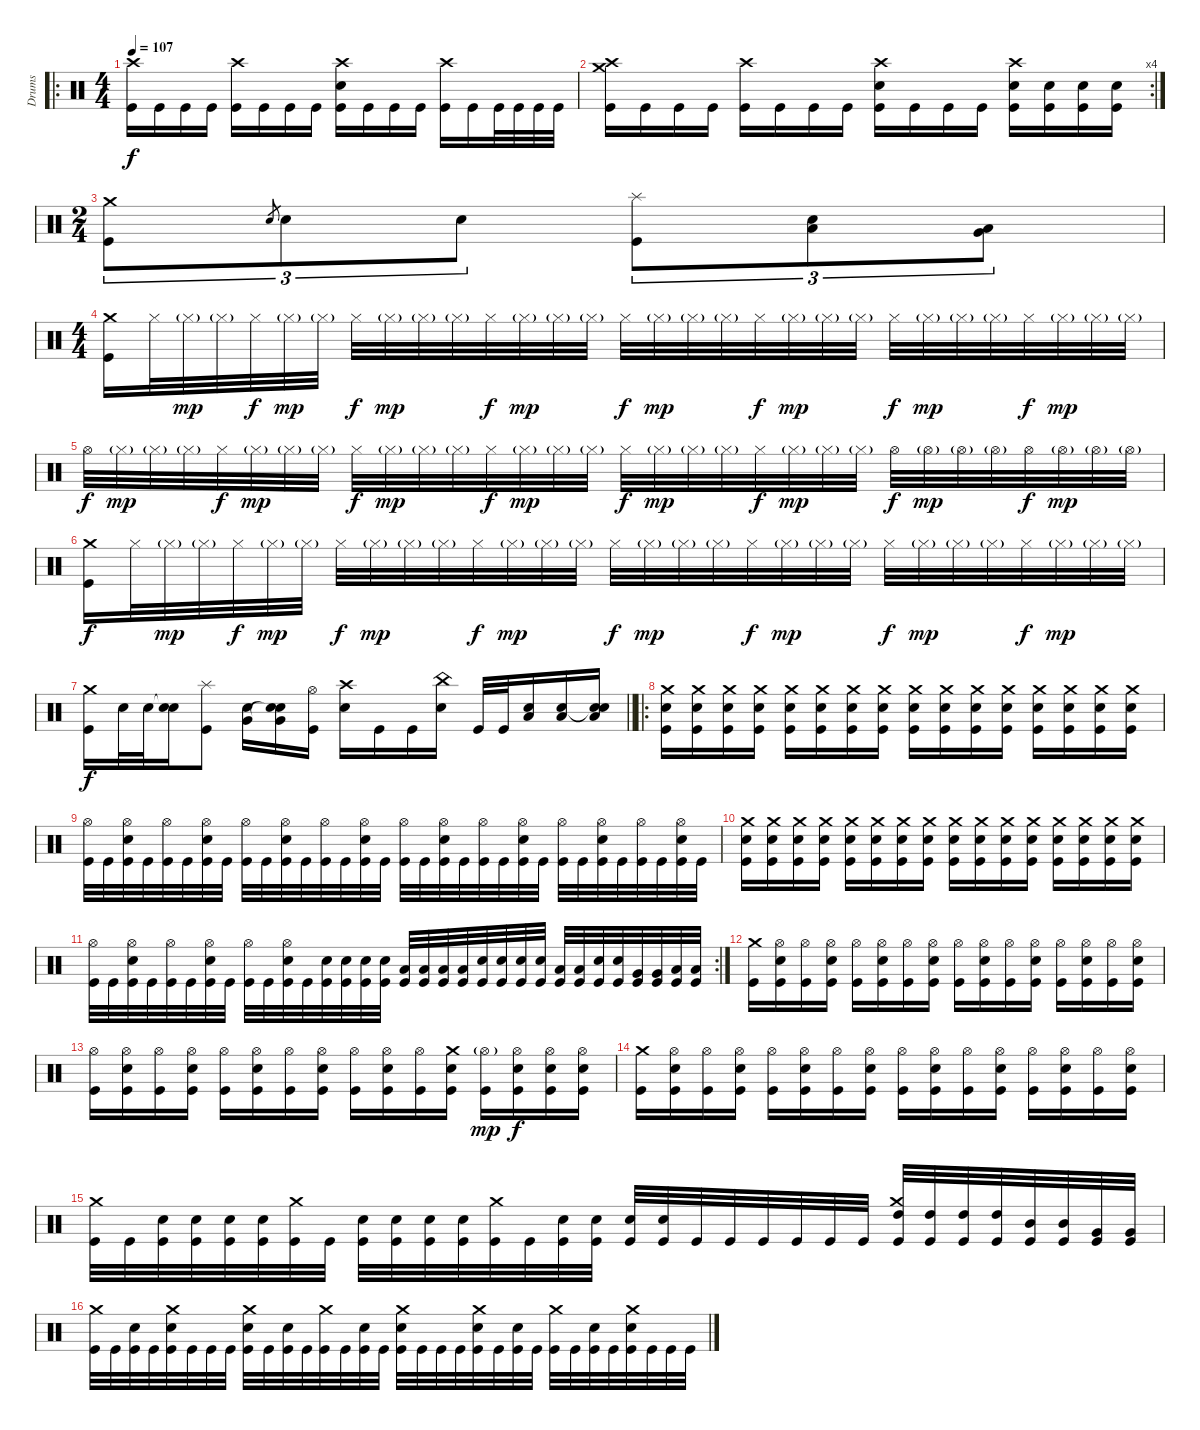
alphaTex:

\track ("Drums" "Drums") {instrument percussion}
\staff {score}
\articulation defaults
\ro
\ts (4 4)
\tempo 107
\clef neutral
\ks c
("Crash high (hit)" "Kick (hit)").16{dy f} "Kick (hit)".16 "Kick (hit)".16 "Kick (hit)".16 ("Crash high (hit)" "Kick (hit)").16 "Kick (hit)".16 "Kick (hit)".16 "Kick (hit)".16 ("Crash high (hit)" "Electric Snare (hit)" "Kick (hit)").16 "Kick (hit)".16 "Kick (hit)".16 "Kick (hit)".16 ("Crash high (hit)" "Kick (hit)").16 "Kick (hit)".16 "Kick (hit)".32 "Kick (hit)".32 "Kick (hit)".32 "Kick (hit)".32 |
\rc 4
("Crash high (hit)" "Crash medium (hit)" "Kick (hit)").16 "Kick (hit)".16 "Kick (hit)".16 "Kick (hit)".16 ("Crash high (hit)" "Kick (hit)").16 "Kick (hit)".16 "Kick (hit)".16 "Kick (hit)".16 ("Crash high (hit)" "Electric Snare (hit)" "Kick (hit)").16 "Kick (hit)".16 "Kick (hit)".16 "Kick (hit)".16 ("Crash high (hit)" "Electric Snare (hit)" "Kick (hit)").16 ("Electric Snare (hit)" "Kick (hit)").16 ("Electric Snare (hit)" "Kick (hit)").16 ("Electric Snare (hit)" "Kick (hit)").16 |
\ts (2 4)
("Crash medium (hit)" "Kick (hit)").8{tu (3 2)} "Electric Snare (hit)".8{gr} "Electric Snare (hit)".8{tu (3 2)} "Electric Snare (hit)".8{tu (3 2)} ("Splash (hit)" "Kick (hit)").8{tu (3 2)} ("Low Tom (hit)" "Electric Snare (hit)").8{tu (3 2)} ("Very Low Tom (hit)" "Low Floor Tom (hit)").8{tu (3 2)} |
\ts (4 4)
("Crash medium (hit)" "Kick (hit)").16 "Hi-Hat (closed)".32 "Hi-Hat (closed)"{g}.32{dy mp} "Hi-Hat (closed)"{g}.32 "Hi-Hat (closed)".32{dy f} "Hi-Hat (closed)"{g}.32{dy mp} "Hi-Hat (closed)"{g}.32 "Hi-Hat (closed)".32{dy f} "Hi-Hat (closed)"{g}.32{dy mp} "Hi-Hat (closed)"{g}.32 "Hi-Hat (closed)"{g}.32 "Hi-Hat (closed)".32{dy f} "Hi-Hat (closed)"{g}.32{dy mp} "Hi-Hat (closed)"{g}.32 "Hi-Hat (closed)"{g}.32 "Hi-Hat (closed)".32{dy f} "Hi-Hat (closed)"{g}.32{dy mp} "Hi-Hat (closed)"{g}.32 "Hi-Hat (closed)"{g}.32 "Hi-Hat (closed)".32{dy f} "Hi-Hat (closed)"{g}.32{dy mp} "Hi-Hat (closed)"{g}.32 "Hi-Hat (closed)"{g}.32 "Hi-Hat (closed)".32{dy f} "Hi-Hat (closed)"{g}.32{dy mp} "Hi-Hat (closed)"{g}.32 "Hi-Hat (closed)"{g}.32 "Hi-Hat (closed)".32{dy f} "Hi-Hat (closed)"{g}.32{dy mp} "Hi-Hat (closed)"{g}.32 "Hi-Hat (closed)"{g}.32 |
"Hi-Hat (open)".32{dy f} "Hi-Hat (closed)"{g}.32{dy mp} "Hi-Hat (closed)"{g}.32 "Hi-Hat (closed)"{g}.32 "Hi-Hat (closed)".32{dy f} "Hi-Hat (closed)"{g}.32{dy mp} "Hi-Hat (closed)"{g}.32 "Hi-Hat (closed)"{g}.32 "Hi-Hat (closed)".32{dy f} "Hi-Hat (closed)"{g}.32{dy mp} "Hi-Hat (closed)"{g}.32 "Hi-Hat (closed)"{g}.32 "Hi-Hat (closed)".32{dy f} "Hi-Hat (closed)"{g}.32{dy mp} "Hi-Hat (closed)"{g}.32 "Hi-Hat (closed)"{g}.32 "Hi-Hat (closed)".32{dy f} "Hi-Hat (closed)"{g}.32{dy mp} "Hi-Hat (closed)"{g}.32 "Hi-Hat (closed)"{g}.32 "Hi-Hat (closed)".32{dy f} "Hi-Hat (closed)"{g}.32{dy mp} "Hi-Hat (closed)"{g}.32 "Hi-Hat (closed)"{g}.32 "Hi-Hat (open)".32{dy f} "Hi-Hat (open)"{g}.32{dy mp} "Hi-Hat (open)"{g}.32 "Hi-Hat (open)"{g}.32 "Hi-Hat (open)".32{dy f} "Hi-Hat (open)"{g}.32{dy mp} "Hi-Hat (open)"{g}.32 "Hi-Hat (open)"{g}.32 |
("Crash medium (hit)" "Kick (hit)").16{dy f} "Hi-Hat (closed)".32 "Hi-Hat (closed)"{g}.32{dy mp} "Hi-Hat (closed)"{g}.32 "Hi-Hat (closed)".32{dy f} "Hi-Hat (closed)"{g}.32{dy mp} "Hi-Hat (closed)"{g}.32 "Hi-Hat (closed)".32{dy f} "Hi-Hat (closed)"{g}.32{dy mp} "Hi-Hat (closed)"{g}.32 "Hi-Hat (closed)"{g}.32 "Hi-Hat (closed)".32{dy f} "Hi-Hat (closed)"{g}.32{dy mp} "Hi-Hat (closed)"{g}.32 "Hi-Hat (closed)"{g}.32 "Hi-Hat (closed)".32{dy f} "Hi-Hat (closed)"{g}.32{dy mp} "Hi-Hat (closed)"{g}.32 "Hi-Hat (closed)"{g}.32 "Hi-Hat (closed)".32{dy f} "Hi-Hat (closed)"{g}.32{dy mp} "Hi-Hat (closed)"{g}.32 "Hi-Hat (closed)"{g}.32 "Hi-Hat (closed)".32{dy f} "Hi-Hat (closed)"{g}.32{dy mp} "Hi-Hat (closed)"{g}.32 "Hi-Hat (closed)"{g}.32 "Hi-Hat (closed)".32{dy f} "Hi-Hat (closed)"{g}.32{dy mp} "Hi-Hat (closed)"{g}.32 "Hi-Hat (closed)"{g}.32 |
\barLineRight lightlight
("Crash medium (hit)" "Kick (hit)").16{dy f} "Electric Snare (hit)".32 "Electric Snare (hit)".32 ("Snare (hit)"{t} "Electric Snare (hit)").16 ("Splash (hit)" "Kick (hit)").8 ("Very Low Tom (hit)" "Electric Snare (hit)").16 ("Snare (hit)"{t} "Very Low Tom (hit)" "Electric Snare (hit)").16 ("Hi-Hat (open)" "Kick (hit)").16 ("Crash high (hit)" "Electric Snare (hit)").16 "Kick (hit)".16 "Kick (hit)".16 ("China (hit)" "Electric Snare (hit)").16 "Kick (hit)".32 "Kick (hit)".32 ("Electric Snare (hit)" "Low Floor Tom (hit)").16 ("Electric Snare (hit)" "Low Floor Tom (hit)").16 ("Snare (hit)"{t} "Electric Snare (hit)" "Low Floor Tom (hit)").16 |
\ro
("Crash medium (hit)" "Electric Snare (hit)" "Kick (hit)").16 ("Crash medium (hit)" "Electric Snare (hit)" "Kick (hit)").16 ("Crash medium (hit)" "Electric Snare (hit)" "Kick (hit)").16 ("Crash medium (hit)" "Electric Snare (hit)" "Kick (hit)").16 ("Crash medium (hit)" "Electric Snare (hit)" "Kick (hit)").16 ("Crash medium (hit)" "Electric Snare (hit)" "Kick (hit)").16 ("Crash medium (hit)" "Electric Snare (hit)" "Kick (hit)").16 ("Crash medium (hit)" "Electric Snare (hit)" "Kick (hit)").16 ("Crash medium (hit)" "Electric Snare (hit)" "Kick (hit)").16 ("Crash medium (hit)" "Electric Snare (hit)" "Kick (hit)").16 ("Crash medium (hit)" "Electric Snare (hit)" "Kick (hit)").16 ("Crash medium (hit)" "Electric Snare (hit)" "Kick (hit)").16 ("Crash medium (hit)" "Electric Snare (hit)" "Kick (hit)").16 ("Crash medium (hit)" "Electric Snare (hit)" "Kick (hit)").16 ("Crash medium (hit)" "Electric Snare (hit)" "Kick (hit)").16 ("Crash medium (hit)" "Electric Snare (hit)" "Kick (hit)").16 |
("Hi-Hat (open)" "Kick (hit)").32 "Kick (hit)".32 ("Hi-Hat (open)" "Electric Snare (hit)" "Kick (hit)").32 "Kick (hit)".32 ("Hi-Hat (open)" "Kick (hit)").32 "Kick (hit)".32 ("Hi-Hat (open)" "Electric Snare (hit)" "Kick (hit)").32 "Kick (hit)".32 ("Hi-Hat (open)" "Kick (hit)").32 "Kick (hit)".32 ("Hi-Hat (open)" "Electric Snare (hit)" "Kick (hit)").32 "Kick (hit)".32 ("Hi-Hat (open)" "Kick (hit)").32 "Kick (hit)".32 ("Hi-Hat (open)" "Electric Snare (hit)" "Kick (hit)").32 "Kick (hit)".32 ("Hi-Hat (open)" "Kick (hit)").32 "Kick (hit)".32 ("Hi-Hat (open)" "Electric Snare (hit)" "Kick (hit)").32 "Kick (hit)".32 ("Hi-Hat (open)" "Kick (hit)").32 "Kick (hit)".32 ("Hi-Hat (open)" "Electric Snare (hit)" "Kick (hit)").32 "Kick (hit)".32 ("Hi-Hat (open)" "Kick (hit)").32 "Kick (hit)".32 ("Hi-Hat (open)" "Electric Snare (hit)" "Kick (hit)").32 "Kick (hit)".32 ("Hi-Hat (open)" "Kick (hit)").32 "Kick (hit)".32 ("Hi-Hat (open)" "Electric Snare (hit)" "Kick (hit)").32 "Kick (hit)".32 |
("Crash medium (hit)" "Electric Snare (hit)" "Kick (hit)").16 ("Crash medium (hit)" "Electric Snare (hit)" "Kick (hit)").16 ("Crash medium (hit)" "Electric Snare (hit)" "Kick (hit)").16 ("Crash medium (hit)" "Electric Snare (hit)" "Kick (hit)").16 ("Crash medium (hit)" "Electric Snare (hit)" "Kick (hit)").16 ("Crash medium (hit)" "Electric Snare (hit)" "Kick (hit)").16 ("Crash medium (hit)" "Electric Snare (hit)" "Kick (hit)").16 ("Crash medium (hit)" "Electric Snare (hit)" "Kick (hit)").16 ("Crash medium (hit)" "Electric Snare (hit)" "Kick (hit)").16 ("Crash medium (hit)" "Electric Snare (hit)" "Kick (hit)").16 ("Crash medium (hit)" "Electric Snare (hit)" "Kick (hit)").16 ("Crash medium (hit)" "Electric Snare (hit)" "Kick (hit)").16 ("Crash medium (hit)" "Electric Snare (hit)" "Kick (hit)").16 ("Crash medium (hit)" "Electric Snare (hit)" "Kick (hit)").16 ("Crash medium (hit)" "Electric Snare (hit)" "Kick (hit)").16 ("Crash medium (hit)" "Electric Snare (hit)" "Kick (hit)").16 |
\rc 2
("Hi-Hat (open)" "Kick (hit)").32 "Kick (hit)".32 ("Hi-Hat (open)" "Electric Snare (hit)" "Kick (hit)").32 "Kick (hit)".32 ("Hi-Hat (open)" "Kick (hit)").32 "Kick (hit)".32 ("Hi-Hat (open)" "Electric Snare (hit)" "Kick (hit)").32 "Kick (hit)".32 ("Hi-Hat (open)" "Kick (hit)").32 "Kick (hit)".32 ("Hi-Hat (open)" "Electric Snare (hit)" "Kick (hit)").32 "Kick (hit)".32 ("Electric Snare (hit)" "Kick (hit)").32 ("Electric Snare (hit)" "Kick (hit)").32 ("Electric Snare (hit)" "Kick (hit)").32 ("Electric Snare (hit)" "Kick (hit)").32 ("Low Tom (hit)" "Kick (hit)").32 ("Low Tom (hit)" "Kick (hit)").32 ("Low Tom (hit)" "Kick (hit)").32 ("Low Tom (hit)" "Kick (hit)").32 ("Electric Snare (hit)" "Kick (hit)").32 ("Electric Snare (hit)" "Kick (hit)").32 ("Electric Snare (hit)" "Kick (hit)").32 ("Electric Snare (hit)" "Kick (hit)").32 ("Low Tom (hit)" "Kick (hit)").32 ("Low Tom (hit)" "Kick (hit)").32 ("Electric Snare (hit)" "Kick (hit)").32 ("Electric Snare (hit)" "Kick (hit)").32 ("Very Low Tom (hit)" "Kick (hit)").32 ("Very Low Tom (hit)" "Kick (hit)").32 ("Low Floor Tom (hit)" "Kick (hit)").32 ("Low Floor Tom (hit)" "Kick (hit)").32 |
("Crash medium (hit)" "Kick (hit)").16 ("Hi-Hat (open)" "Electric Snare (hit)" "Kick (hit)").16 ("Hi-Hat (open)" "Kick (hit)").16 ("Hi-Hat (open)" "Electric Snare (hit)" "Kick (hit)").16 ("Hi-Hat (open)" "Kick (hit)").16 ("Hi-Hat (open)" "Electric Snare (hit)" "Kick (hit)").16 ("Hi-Hat (open)" "Kick (hit)").16 ("Hi-Hat (open)" "Electric Snare (hit)" "Kick (hit)").16 ("Hi-Hat (open)" "Kick (hit)").16 ("Hi-Hat (open)" "Electric Snare (hit)" "Kick (hit)").16 ("Hi-Hat (open)" "Kick (hit)").16 ("Hi-Hat (open)" "Electric Snare (hit)" "Kick (hit)").16 ("Hi-Hat (open)" "Kick (hit)").16 ("Hi-Hat (open)" "Electric Snare (hit)" "Kick (hit)").16 ("Hi-Hat (open)" "Kick (hit)").16 ("Hi-Hat (open)" "Electric Snare (hit)" "Kick (hit)").16 |
("Hi-Hat (open)" "Kick (hit)").16 ("Hi-Hat (open)" "Electric Snare (hit)" "Kick (hit)").16 ("Hi-Hat (open)" "Kick (hit)").16 ("Hi-Hat (open)" "Electric Snare (hit)" "Kick (hit)").16 ("Hi-Hat (open)" "Kick (hit)").16 ("Hi-Hat (open)" "Electric Snare (hit)" "Kick (hit)").16 ("Hi-Hat (open)" "Kick (hit)").16 ("Hi-Hat (open)" "Electric Snare (hit)" "Kick (hit)").16 ("Hi-Hat (open)" "Kick (hit)").16 ("Hi-Hat (open)" "Electric Snare (hit)" "Kick (hit)").16 ("Hi-Hat (open)" "Kick (hit)").16 ("Crash medium (hit)" "Electric Snare (hit)" "Kick (hit)").16 ("Hi-Hat (open)"{g} "Kick (hit)").16{dy mp} ("Hi-Hat (open)" "Electric Snare (hit)" "Kick (hit)").16{dy f} ("Hi-Hat (open)" "Electric Snare (hit)" "Kick (hit)").16 ("Hi-Hat (open)" "Electric Snare (hit)" "Kick (hit)").16 |
("Crash medium (hit)" "Kick (hit)").16 ("Hi-Hat (open)" "Electric Snare (hit)" "Kick (hit)").16 ("Hi-Hat (open)" "Kick (hit)").16 ("Hi-Hat (open)" "Electric Snare (hit)" "Kick (hit)").16 ("Hi-Hat (open)" "Kick (hit)").16 ("Hi-Hat (open)" "Electric Snare (hit)" "Kick (hit)").16 ("Hi-Hat (open)" "Kick (hit)").16 ("Hi-Hat (open)" "Electric Snare (hit)" "Kick (hit)").16 ("Hi-Hat (open)" "Kick (hit)").16 ("Hi-Hat (open)" "Electric Snare (hit)" "Kick (hit)").16 ("Hi-Hat (open)" "Kick (hit)").16 ("Hi-Hat (open)" "Electric Snare (hit)" "Kick (hit)").16 ("Hi-Hat (open)" "Kick (hit)").16 ("Hi-Hat (open)" "Electric Snare (hit)" "Kick (hit)").16 ("Hi-Hat (open)" "Kick (hit)").16 ("Hi-Hat (open)" "Electric Snare (hit)" "Kick (hit)").16 |
("Crash medium (hit)" "Kick (hit)").32 "Kick (hit)".32 ("Electric Snare (hit)" "Kick (hit)").32 ("Electric Snare (hit)" "Kick (hit)").32 ("Electric Snare (hit)" "Kick (hit)").32 ("Electric Snare (hit)" "Kick (hit)").32 ("Crash medium (hit)" "Kick (hit)").32 "Kick (hit)".32 ("Electric Snare (hit)" "Kick (hit)").32 ("Electric Snare (hit)" "Kick (hit)").32 ("Electric Snare (hit)" "Kick (hit)").32 ("Electric Snare (hit)" "Kick (hit)").32 ("Crash medium (hit)" "Kick (hit)").32 "Kick (hit)".32 ("Electric Snare (hit)" "Kick (hit)").32 ("Electric Snare (hit)" "Kick (hit)").32 ("Electric Snare (hit)" "Kick (hit)").32 ("Electric Snare (hit)" "Kick (hit)").32 "Kick (hit)".32 "Kick (hit)".32 "Kick (hit)".32 "Kick (hit)".32 "Kick (hit)".32 "Kick (hit)".32 ("Crash medium (hit)" "High Tom (hit)" "Kick (hit)").32 ("High Tom (hit)" "Kick (hit)").32 ("High Tom (hit)" "Kick (hit)").32 ("High Tom (hit)" "Kick (hit)").32 ("Mid Tom (hit)" "Kick (hit)").32 ("Mid Tom (hit)" "Kick (hit)").32 ("Very Low Tom (hit)" "Kick (hit)").32 ("Very Low Tom (hit)" "Kick (hit)").32 |
("Crash medium (hit)" "Kick (hit)").32 "Kick (hit)".32 ("Electric Snare (hit)" "Kick (hit)").32 "Kick (hit)".32 ("Crash medium (hit)" "Electric Snare (hit)" "Kick (hit)").32 "Kick (hit)".32 "Kick (hit)".32 "Kick (hit)".32 ("Crash medium (hit)" "Electric Snare (hit)" "Kick (hit)").32 "Kick (hit)".32 ("Electric Snare (hit)" "Kick (hit)").32 "Kick (hit)".32 ("Crash medium (hit)" "Kick (hit)").32 "Kick (hit)".32 ("Electric Snare (hit)" "Kick (hit)").32 "Kick (hit)".32 ("Crash medium (hit)" "Electric Snare (hit)" "Kick (hit)").32 "Kick (hit)".32 "Kick (hit)".32 "Kick (hit)".32 ("Crash medium (hit)" "Electric Snare (hit)" "Kick (hit)").32 "Kick (hit)".32 ("Electric Snare (hit)" "Kick (hit)").32 "Kick (hit)".32 ("Crash medium (hit)" "Kick (hit)").32 "Kick (hit)".32 ("Electric Snare (hit)" "Kick (hit)").32 "Kick (hit)".32 ("Crash medium (hit)" "Electric Snare (hit)" "Kick (hit)").32 "Kick (hit)".32 "Kick (hit)".32 "Kick (hit)".32
